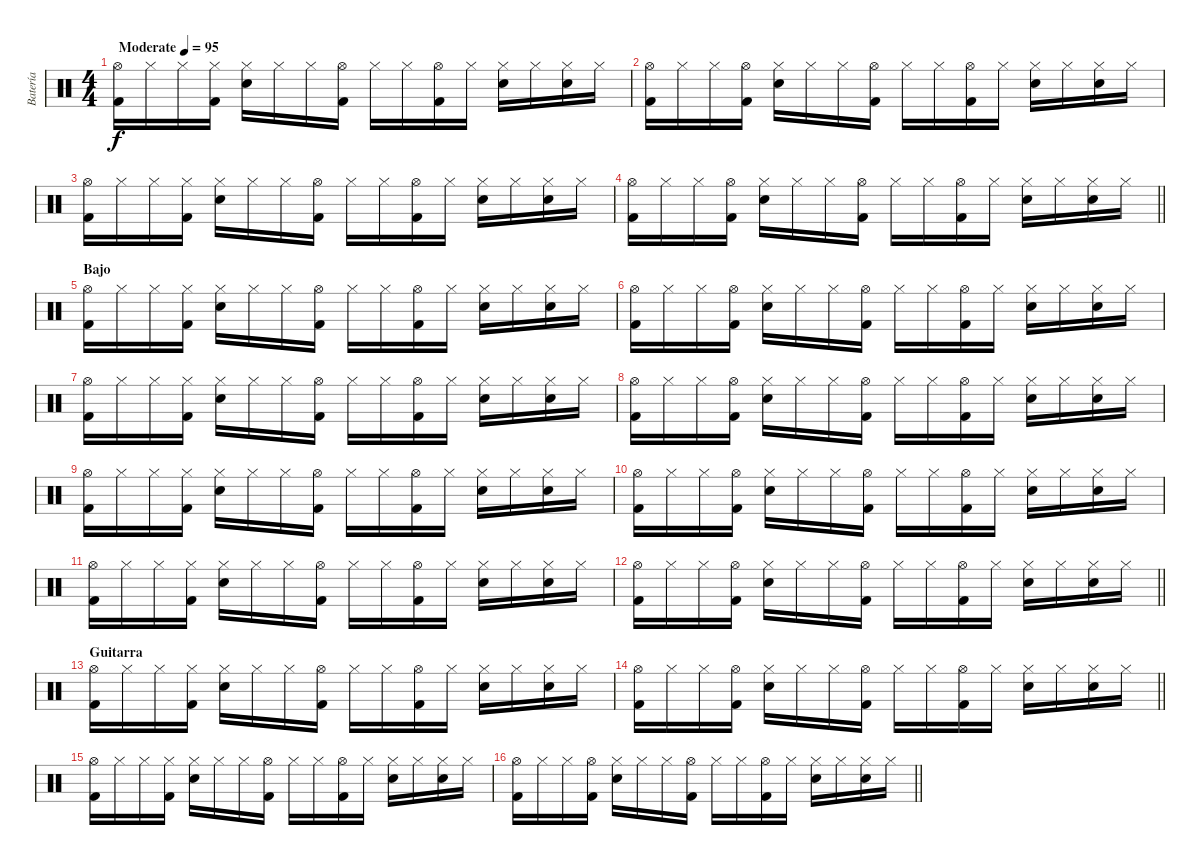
\track ("Batería" "Batería") {instrument percussion}
\staff {score}
\articulation defaults
\ts (4 4)
\tempo (95 "Moderate")
\clef neutral
\ks c
("Hi-Hat (open)" "Kick (hit) 2").16{dy f} "Hi-Hat (closed)".16 "Hi-Hat (closed)".16 ("Hi-Hat (closed)" "Kick (hit) 2").16 ("Hi-Hat (closed)" "Electric Snare (hit)").16 "Hi-Hat (closed)".16 "Hi-Hat (closed)".16 ("Hi-Hat (open)" "Kick (hit) 2").16 "Hi-Hat (closed)".16 "Hi-Hat (closed)".16 ("Hi-Hat (open)" "Kick (hit) 2").16 "Hi-Hat (closed)".16 ("Hi-Hat (closed)" "Electric Snare (hit)").16 "Hi-Hat (closed)".16 ("Hi-Hat (closed)" "Electric Snare (hit)").16 "Hi-Hat (closed)".16 |
("Hi-Hat (open)" "Kick (hit) 2").16 "Hi-Hat (closed)".16 "Hi-Hat (closed)".16 ("Hi-Hat (open)" "Kick (hit) 2").16 ("Hi-Hat (closed)" "Electric Snare (hit)").16 "Hi-Hat (closed)".16 "Hi-Hat (closed)".16 ("Hi-Hat (open)" "Kick (hit) 2").16 "Hi-Hat (closed)".16 "Hi-Hat (closed)".16 ("Hi-Hat (open)" "Kick (hit) 2").16 "Hi-Hat (closed)".16 ("Hi-Hat (closed)" "Electric Snare (hit)").16 "Hi-Hat (closed)".16 ("Hi-Hat (closed)" "Electric Snare (hit)").16 "Hi-Hat (closed)".16 |
("Hi-Hat (open)" "Kick (hit) 2").16 "Hi-Hat (closed)".16 "Hi-Hat (closed)".16 ("Hi-Hat (closed)" "Kick (hit) 2").16 ("Hi-Hat (closed)" "Electric Snare (hit)").16 "Hi-Hat (closed)".16 "Hi-Hat (closed)".16 ("Hi-Hat (open)" "Kick (hit) 2").16 "Hi-Hat (closed)".16 "Hi-Hat (closed)".16 ("Hi-Hat (open)" "Kick (hit) 2").16 "Hi-Hat (closed)".16 ("Hi-Hat (closed)" "Electric Snare (hit)").16 "Hi-Hat (closed)".16 ("Hi-Hat (closed)" "Electric Snare (hit)").16 "Hi-Hat (closed)".16 |
\barLineRight lightlight
("Hi-Hat (open)" "Kick (hit) 2").16 "Hi-Hat (closed)".16 "Hi-Hat (closed)".16 ("Hi-Hat (open)" "Kick (hit) 2").16 ("Hi-Hat (closed)" "Electric Snare (hit)").16 "Hi-Hat (closed)".16 "Hi-Hat (closed)".16 ("Hi-Hat (open)" "Kick (hit) 2").16 "Hi-Hat (closed)".16 "Hi-Hat (closed)".16 ("Hi-Hat (open)" "Kick (hit) 2").16 "Hi-Hat (closed)".16 ("Hi-Hat (closed)" "Electric Snare (hit)").16 "Hi-Hat (closed)".16 ("Hi-Hat (closed)" "Electric Snare (hit)").16 "Hi-Hat (closed)".16 |
\section ("" "Bajo")
("Hi-Hat (open)" "Kick (hit) 2").16 "Hi-Hat (closed)".16 "Hi-Hat (closed)".16 ("Hi-Hat (closed)" "Kick (hit) 2").16 ("Hi-Hat (closed)" "Electric Snare (hit)").16 "Hi-Hat (closed)".16 "Hi-Hat (closed)".16 ("Hi-Hat (open)" "Kick (hit) 2").16 "Hi-Hat (closed)".16 "Hi-Hat (closed)".16 ("Hi-Hat (open)" "Kick (hit) 2").16 "Hi-Hat (closed)".16 ("Hi-Hat (closed)" "Electric Snare (hit)").16 "Hi-Hat (closed)".16 ("Hi-Hat (closed)" "Electric Snare (hit)").16 "Hi-Hat (closed)".16 |
("Hi-Hat (open)" "Kick (hit) 2").16 "Hi-Hat (closed)".16 "Hi-Hat (closed)".16 ("Hi-Hat (open)" "Kick (hit) 2").16 ("Hi-Hat (closed)" "Electric Snare (hit)").16 "Hi-Hat (closed)".16 "Hi-Hat (closed)".16 ("Hi-Hat (open)" "Kick (hit) 2").16 "Hi-Hat (closed)".16 "Hi-Hat (closed)".16 ("Hi-Hat (open)" "Kick (hit) 2").16 "Hi-Hat (closed)".16 ("Hi-Hat (closed)" "Electric Snare (hit)").16 "Hi-Hat (closed)".16 ("Hi-Hat (closed)" "Electric Snare (hit)").16 "Hi-Hat (closed)".16 |
("Hi-Hat (open)" "Kick (hit) 2").16 "Hi-Hat (closed)".16 "Hi-Hat (closed)".16 ("Hi-Hat (closed)" "Kick (hit) 2").16 ("Hi-Hat (closed)" "Electric Snare (hit)").16 "Hi-Hat (closed)".16 "Hi-Hat (closed)".16 ("Hi-Hat (open)" "Kick (hit) 2").16 "Hi-Hat (closed)".16 "Hi-Hat (closed)".16 ("Hi-Hat (open)" "Kick (hit) 2").16 "Hi-Hat (closed)".16 ("Hi-Hat (closed)" "Electric Snare (hit)").16 "Hi-Hat (closed)".16 ("Hi-Hat (closed)" "Electric Snare (hit)").16 "Hi-Hat (closed)".16 |
("Hi-Hat (open)" "Kick (hit) 2").16 "Hi-Hat (closed)".16 "Hi-Hat (closed)".16 ("Hi-Hat (open)" "Kick (hit) 2").16 ("Hi-Hat (closed)" "Electric Snare (hit)").16 "Hi-Hat (closed)".16 "Hi-Hat (closed)".16 ("Hi-Hat (open)" "Kick (hit) 2").16 "Hi-Hat (closed)".16 "Hi-Hat (closed)".16 ("Hi-Hat (open)" "Kick (hit) 2").16 "Hi-Hat (closed)".16 ("Hi-Hat (closed)" "Electric Snare (hit)").16 "Hi-Hat (closed)".16 ("Hi-Hat (closed)" "Electric Snare (hit)").16 "Hi-Hat (closed)".16 |
("Hi-Hat (open)" "Kick (hit) 2").16 "Hi-Hat (closed)".16 "Hi-Hat (closed)".16 ("Hi-Hat (closed)" "Kick (hit) 2").16 ("Hi-Hat (closed)" "Electric Snare (hit)").16 "Hi-Hat (closed)".16 "Hi-Hat (closed)".16 ("Hi-Hat (open)" "Kick (hit) 2").16 "Hi-Hat (closed)".16 "Hi-Hat (closed)".16 ("Hi-Hat (open)" "Kick (hit) 2").16 "Hi-Hat (closed)".16 ("Hi-Hat (closed)" "Electric Snare (hit)").16 "Hi-Hat (closed)".16 ("Hi-Hat (closed)" "Electric Snare (hit)").16 "Hi-Hat (closed)".16 |
("Hi-Hat (open)" "Kick (hit) 2").16 "Hi-Hat (closed)".16 "Hi-Hat (closed)".16 ("Hi-Hat (open)" "Kick (hit) 2").16 ("Hi-Hat (closed)" "Electric Snare (hit)").16 "Hi-Hat (closed)".16 "Hi-Hat (closed)".16 ("Hi-Hat (open)" "Kick (hit) 2").16 "Hi-Hat (closed)".16 "Hi-Hat (closed)".16 ("Hi-Hat (open)" "Kick (hit) 2").16 "Hi-Hat (closed)".16 ("Hi-Hat (closed)" "Electric Snare (hit)").16 "Hi-Hat (closed)".16 ("Hi-Hat (closed)" "Electric Snare (hit)").16 "Hi-Hat (closed)".16 |
("Hi-Hat (open)" "Kick (hit) 2").16 "Hi-Hat (closed)".16 "Hi-Hat (closed)".16 ("Hi-Hat (closed)" "Kick (hit) 2").16 ("Hi-Hat (closed)" "Electric Snare (hit)").16 "Hi-Hat (closed)".16 "Hi-Hat (closed)".16 ("Hi-Hat (open)" "Kick (hit) 2").16 "Hi-Hat (closed)".16 "Hi-Hat (closed)".16 ("Hi-Hat (open)" "Kick (hit) 2").16 "Hi-Hat (closed)".16 ("Hi-Hat (closed)" "Electric Snare (hit)").16 "Hi-Hat (closed)".16 ("Hi-Hat (closed)" "Electric Snare (hit)").16 "Hi-Hat (closed)".16 |
\barLineRight lightlight
("Hi-Hat (open)" "Kick (hit) 2").16 "Hi-Hat (closed)".16 "Hi-Hat (closed)".16 ("Hi-Hat (open)" "Kick (hit) 2").16 ("Hi-Hat (closed)" "Electric Snare (hit)").16 "Hi-Hat (closed)".16 "Hi-Hat (closed)".16 ("Hi-Hat (open)" "Kick (hit) 2").16 "Hi-Hat (closed)".16 "Hi-Hat (closed)".16 ("Hi-Hat (open)" "Kick (hit) 2").16 "Hi-Hat (closed)".16 ("Hi-Hat (closed)" "Electric Snare (hit)").16 "Hi-Hat (closed)".16 ("Hi-Hat (closed)" "Electric Snare (hit)").16 "Hi-Hat (closed)".16 |
\section ("" "Guitarra")
("Hi-Hat (open)" "Kick (hit) 2").16 "Hi-Hat (closed)".16 "Hi-Hat (closed)".16 ("Hi-Hat (closed)" "Kick (hit) 2").16 ("Hi-Hat (closed)" "Electric Snare (hit)").16 "Hi-Hat (closed)".16 "Hi-Hat (closed)".16 ("Hi-Hat (open)" "Kick (hit) 2").16 "Hi-Hat (closed)".16 "Hi-Hat (closed)".16 ("Hi-Hat (open)" "Kick (hit) 2").16 "Hi-Hat (closed)".16 ("Hi-Hat (closed)" "Electric Snare (hit)").16 "Hi-Hat (closed)".16 ("Hi-Hat (closed)" "Electric Snare (hit)").16 "Hi-Hat (closed)".16 |
\barLineRight lightlight
("Hi-Hat (open)" "Kick (hit) 2").16 "Hi-Hat (closed)".16 "Hi-Hat (closed)".16 ("Hi-Hat (open)" "Kick (hit) 2").16 ("Hi-Hat (closed)" "Electric Snare (hit)").16 "Hi-Hat (closed)".16 "Hi-Hat (closed)".16 ("Hi-Hat (open)" "Kick (hit) 2").16 "Hi-Hat (closed)".16 "Hi-Hat (closed)".16 ("Hi-Hat (open)" "Kick (hit) 2").16 "Hi-Hat (closed)".16 ("Hi-Hat (closed)" "Electric Snare (hit)").16 "Hi-Hat (closed)".16 ("Hi-Hat (closed)" "Electric Snare (hit)").16 "Hi-Hat (closed)".16 |
("Hi-Hat (open)" "Kick (hit) 2").16 "Hi-Hat (closed)".16 "Hi-Hat (closed)".16 ("Hi-Hat (closed)" "Kick (hit) 2").16 ("Hi-Hat (closed)" "Electric Snare (hit)").16 "Hi-Hat (closed)".16 "Hi-Hat (closed)".16 ("Hi-Hat (open)" "Kick (hit) 2").16 "Hi-Hat (closed)".16 "Hi-Hat (closed)".16 ("Hi-Hat (open)" "Kick (hit) 2").16 "Hi-Hat (closed)".16 ("Hi-Hat (closed)" "Electric Snare (hit)").16 "Hi-Hat (closed)".16 ("Hi-Hat (closed)" "Electric Snare (hit)").16 "Hi-Hat (closed)".16 |
\barLineRight lightlight
("Hi-Hat (open)" "Kick (hit) 2").16 "Hi-Hat (closed)".16 "Hi-Hat (closed)".16 ("Hi-Hat (open)" "Kick (hit) 2").16 ("Hi-Hat (closed)" "Electric Snare (hit)").16 "Hi-Hat (closed)".16 "Hi-Hat (closed)".16 ("Hi-Hat (open)" "Kick (hit) 2").16 "Hi-Hat (closed)".16 "Hi-Hat (closed)".16 ("Hi-Hat (open)" "Kick (hit) 2").16 "Hi-Hat (closed)".16 ("Hi-Hat (closed)" "Electric Snare (hit)").16 "Hi-Hat (closed)".16 ("Hi-Hat (closed)" "Electric Snare (hit)").16 "Hi-Hat (closed)".16
